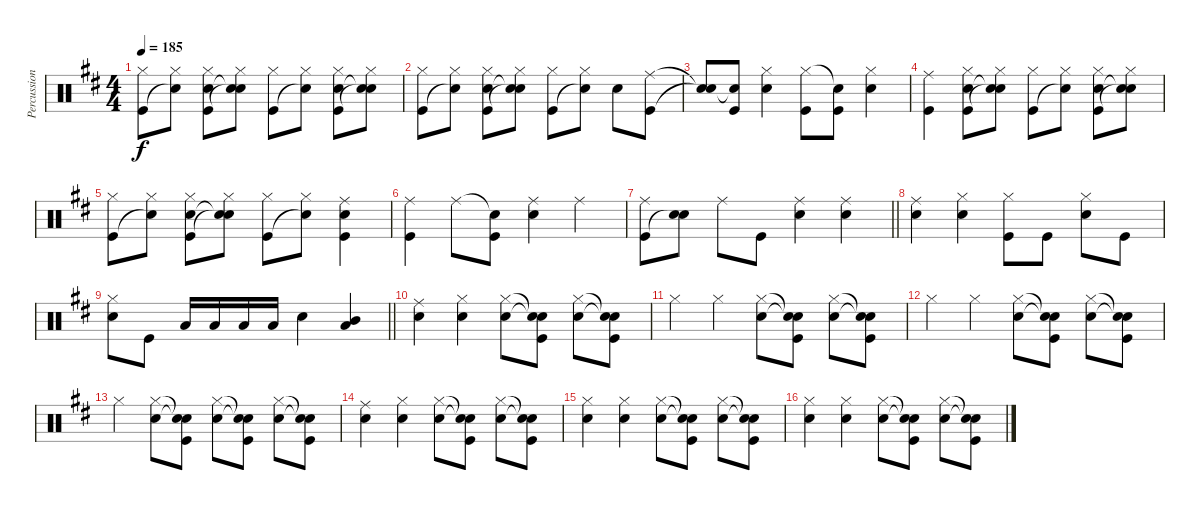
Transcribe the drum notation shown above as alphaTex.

\track ("Percussion" "Percussion") {instrument percussion}
\staff {score}
\articulation defaults
\ts (4 4)
\tempo 185
\clef neutral
\ks d
("Hi-Hat (closed)" "Kick (hit)").8{dy f} ("Hi-Hat (closed)" "Snare (hit)"{t}).8 ("Hi-Hat (closed)" "Snare (hit) 2" "Kick (hit)").8 ("Hi-Hat (closed)" "Snare (hit)"{t} "Snare (hit)"{t}).8 ("Hi-Hat (closed)" "Kick (hit)").8 ("Hi-Hat (closed)" "Snare (hit)"{t}).8 ("Hi-Hat (closed)" "Snare (hit) 2" "Kick (hit)").8 ("Hi-Hat (closed)" "Snare (hit)"{t} "Snare (hit)"{t}).8 |
("Hi-Hat (closed)" "Kick (hit)").8 ("Hi-Hat (closed)" "Snare (hit)"{t}).8 ("Hi-Hat (closed)" "Snare (hit) 2" "Kick (hit)").8 ("Hi-Hat (closed)" "Snare (hit)"{t} "Snare (hit)"{t}).8 ("Hi-Hat (closed)" "Kick (hit)").8 ("Hi-Hat (closed)" "Snare (hit)"{t}).8 "Snare (hit) 2".8 ("Ride (middle)" "Kick (hit)").8 |
("Snare (hit)"{t} "Snare (hit)"{t}).8 ("Snare (hit)"{t} "Kick (hit)").8 ("Hi-Hat (closed)" "Snare (hit) 2").4 ("Hi-Hat (closed)" "Kick (hit)").8 ("Snare (hit)"{t} "Kick (hit)").8 ("Hi-Hat (closed)" "Snare (hit) 2").4 |
("Ride (middle)" "Kick (hit)").4 ("Hi-Hat (closed)" "Snare (hit) 2" "Kick (hit)").8 ("Hi-Hat (closed)" "Snare (hit)"{t} "Snare (hit)"{t}).8 ("Hi-Hat (closed)" "Kick (hit)").8 ("Hi-Hat (closed)" "Snare (hit)"{t}).8 ("Hi-Hat (closed)" "Snare (hit) 2" "Kick (hit)").8 ("Hi-Hat (closed)" "Snare (hit)"{t} "Snare (hit)"{t}).8 |
("Hi-Hat (closed)" "Kick (hit)").8 ("Hi-Hat (closed)" "Snare (hit)"{t}).8 ("Hi-Hat (closed)" "Snare (hit) 2" "Kick (hit)").8 ("Hi-Hat (closed)" "Snare (hit)"{t} "Snare (hit)"{t}).8 ("Hi-Hat (closed)" "Kick (hit)").8 ("Hi-Hat (closed)" "Snare (hit)"{t}).8 ("Ride (middle)" "Snare (hit) 2" "Kick (hit)").4 |
("Ride (middle)" "Kick (hit)").4 "Ride (middle)".8 ("Snare (hit)"{t} "Kick (hit)").8 ("Ride (middle)" "Snare (hit) 2").4 "Ride (middle)".4 |
\barLineRight lightlight
("Ride (middle)" "Kick (hit)").8 ("Snare (hit) 2" "Snare (hit)"{t}).8 "Ride (middle)".8 "Kick (hit)".8 ("Ride (middle)" "Snare (hit) 2").4 ("Ride (middle)" "Snare (hit) 2").4 |
("Ride (middle)" "Snare (hit) 2").4 ("Hi-Hat (closed)" "Snare (hit) 2").4 ("Hi-Hat (closed)" "Kick (hit)").8 "Kick (hit)".8 ("Hi-Hat (closed)" "Snare (hit) 2").8 "Kick (hit)".8 |
\barLineRight lightlight
("Hi-Hat (closed)" "Snare (hit) 2").8 "Kick (hit)".8 "Low Tom (hit)".16 "Low Tom (hit)".16 "Low Tom (hit)".16 "Low Tom (hit)".16 "Snare (hit) 2".4 ("Low Tom (hit)" "Mid Tom (hit)").4 |
("Ride (middle)" "Snare (hit) 2").4 ("Hi-Hat (closed)" "Snare (hit) 2").4 ("Hi-Hat (closed)" "Snare (hit) 2").8 ("Snare (hit)"{t} "Snare (hit)"{t} "Kick (hit)").8 ("Hi-Hat (closed)" "Snare (hit) 2").8 ("Snare (hit)"{t} "Snare (hit)"{t} "Kick (hit)").8 |
"Hi-Hat (closed)".4 "Hi-Hat (closed)".4 ("Hi-Hat (closed)" "Snare (hit) 2").8 ("Snare (hit)"{t} "Snare (hit)"{t} "Kick (hit)").8 ("Hi-Hat (closed)" "Snare (hit) 2").8 ("Snare (hit)"{t} "Snare (hit)"{t} "Kick (hit)").8 |
"Hi-Hat (closed)".4 "Hi-Hat (closed)".4 ("Hi-Hat (closed)" "Snare (hit) 2").8 ("Snare (hit)"{t} "Snare (hit)"{t} "Kick (hit)").8 ("Hi-Hat (closed)" "Snare (hit) 2").8 ("Snare (hit)"{t} "Snare (hit)"{t} "Kick (hit)").8 |
"Hi-Hat (closed)".4 ("Hi-Hat (closed)" "Snare (hit) 2").8 ("Snare (hit)"{t} "Snare (hit)"{t} "Kick (hit)").8 ("Hi-Hat (closed)" "Snare (hit) 2").8 ("Snare (hit)"{t} "Snare (hit)"{t} "Kick (hit)").8 ("Hi-Hat (closed)" "Snare (hit) 2").8 ("Snare (hit)"{t} "Snare (hit)"{t} "Kick (hit)").8 |
("Ride (middle)" "Snare (hit) 2").4 ("Hi-Hat (closed)" "Snare (hit) 2").4 ("Hi-Hat (closed)" "Snare (hit) 2").8 ("Snare (hit)"{t} "Snare (hit)"{t} "Kick (hit)").8 ("Hi-Hat (closed)" "Snare (hit) 2").8 ("Snare (hit)"{t} "Snare (hit)"{t} "Kick (hit)").8 |
("Hi-Hat (closed)" "Snare (hit) 2").4 ("Hi-Hat (closed)" "Snare (hit) 2").4 ("Hi-Hat (closed)" "Snare (hit) 2").8 ("Snare (hit)"{t} "Snare (hit)"{t} "Kick (hit)").8 ("Hi-Hat (closed)" "Snare (hit) 2").8 ("Snare (hit)"{t} "Snare (hit)"{t} "Kick (hit)").8 |
("Hi-Hat (closed)" "Snare (hit) 2").4 ("Hi-Hat (closed)" "Snare (hit) 2").4 ("Hi-Hat (closed)" "Snare (hit) 2").8 ("Snare (hit)"{t} "Snare (hit)"{t} "Kick (hit)").8 ("Hi-Hat (closed)" "Snare (hit) 2").8 ("Snare (hit)"{t} "Snare (hit)"{t} "Kick (hit)").8
